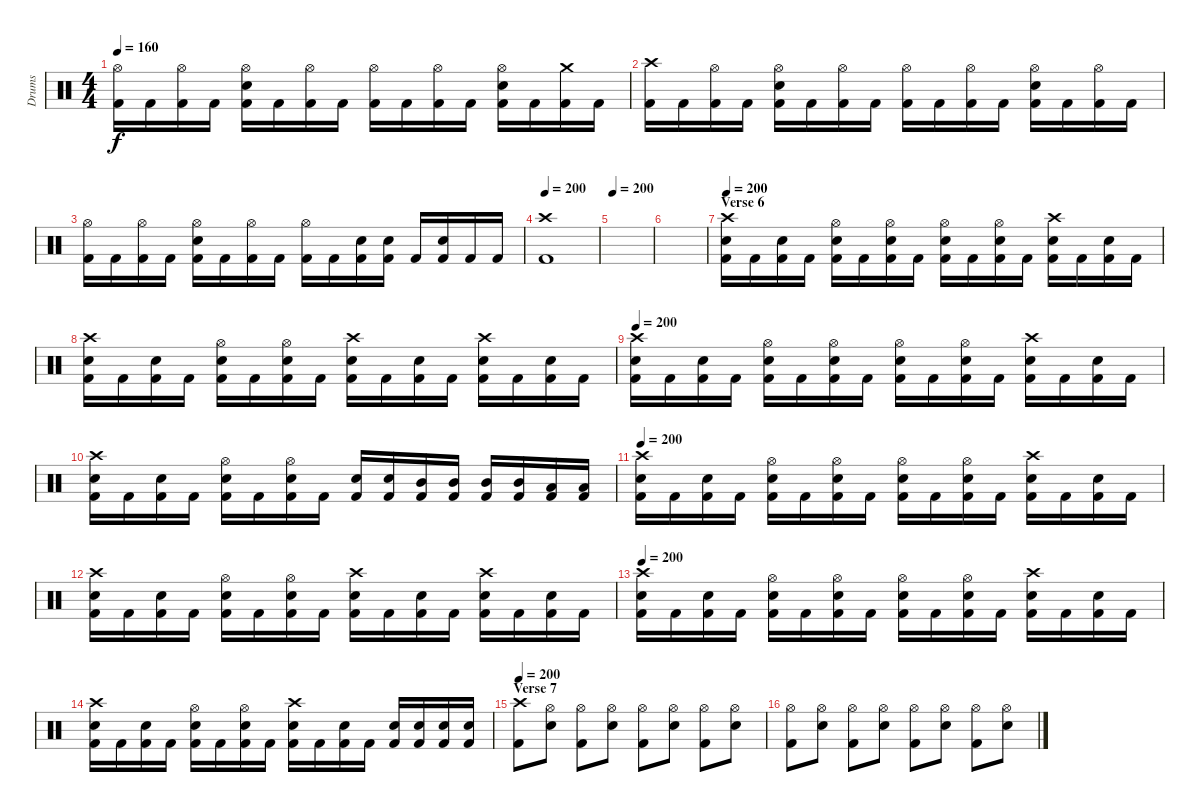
\track ("Drums" "Drums") {instrument percussion}
\staff {score}
\articulation defaults
\ts (4 4)
\tempo 160
\clef neutral
\ks c
("Hi-Hat (open)" "Kick (hit) 2").16{dy f} "Kick (hit) 2".16 ("Hi-Hat (open)" "Kick (hit) 2").16 "Kick (hit) 2".16 ("Hi-Hat (open)" "Electric Snare (hit)" "Kick (hit) 2").16 "Kick (hit) 2".16 ("Hi-Hat (open)" "Kick (hit) 2").16 "Kick (hit) 2".16 ("Hi-Hat (open)" "Kick (hit) 2").16 "Kick (hit) 2".16 ("Hi-Hat (open)" "Kick (hit) 2").16 "Kick (hit) 2".16 ("Hi-Hat (open)" "Electric Snare (hit)" "Kick (hit) 2").16 "Kick (hit) 2".16 ("Crash medium (hit)" "Kick (hit) 2").16 "Kick (hit) 2".16 |
("Crash high (hit)" "Kick (hit) 2").16 "Kick (hit) 2".16 ("Hi-Hat (open)" "Kick (hit) 2").16 "Kick (hit) 2".16 ("Hi-Hat (open)" "Electric Snare (hit)" "Kick (hit) 2").16 "Kick (hit) 2".16 ("Hi-Hat (open)" "Kick (hit) 2").16 "Kick (hit) 2".16 ("Hi-Hat (open)" "Kick (hit) 2").16 "Kick (hit) 2".16 ("Hi-Hat (open)" "Kick (hit) 2").16 "Kick (hit) 2".16 ("Hi-Hat (open)" "Electric Snare (hit)" "Kick (hit) 2").16 "Kick (hit) 2".16 ("Hi-Hat (open)" "Kick (hit) 2").16 "Kick (hit) 2".16 |
("Hi-Hat (open)" "Kick (hit) 2").16 "Kick (hit) 2".16 ("Hi-Hat (open)" "Kick (hit) 2").16 "Kick (hit) 2".16 ("Hi-Hat (open)" "Electric Snare (hit)" "Kick (hit) 2").16 "Kick (hit) 2".16 ("Hi-Hat (open)" "Kick (hit) 2").16 "Kick (hit) 2".16 ("Hi-Hat (open)" "Kick (hit) 2").16 "Kick (hit) 2".16 ("Electric Snare (hit)" "Kick (hit) 2").16 ("Electric Snare (hit)" "Kick (hit) 2").16 "Kick (hit) 2".16 ("Electric Snare (hit)" "Kick (hit) 2").16 "Kick (hit) 2".16 "Kick (hit) 2".16 |
\tempo 200
("Crash high (hit)" "Kick (hit) 2").1 |
\tempo 200
|
|
\section ("" "Verse 6")
\tempo 200
("Crash high (hit)" "Electric Snare (hit)" "Kick (hit) 2").16 "Kick (hit) 2".16 ("Electric Snare (hit)" "Kick (hit) 2").16 "Kick (hit) 2".16 ("Hi-Hat (open)" "Electric Snare (hit)" "Kick (hit) 2").16 "Kick (hit) 2".16 ("Hi-Hat (open)" "Electric Snare (hit)" "Kick (hit) 2").16 "Kick (hit) 2".16 ("Hi-Hat (open)" "Electric Snare (hit)" "Kick (hit) 2").16 "Kick (hit) 2".16 ("Hi-Hat (open)" "Electric Snare (hit)" "Kick (hit) 2").16 "Kick (hit) 2".16 ("Crash high (hit)" "Electric Snare (hit)" "Kick (hit) 2").16 "Kick (hit) 2".16 ("Electric Snare (hit)" "Kick (hit) 2").16 "Kick (hit) 2".16 |
("Crash high (hit)" "Electric Snare (hit)" "Kick (hit) 2").16 "Kick (hit) 2".16 ("Electric Snare (hit)" "Kick (hit) 2").16 "Kick (hit) 2".16 ("Hi-Hat (open)" "Electric Snare (hit)" "Kick (hit) 2").16 "Kick (hit) 2".16 ("Hi-Hat (open)" "Electric Snare (hit)" "Kick (hit) 2").16 "Kick (hit) 2".16 ("Crash high (hit)" "Electric Snare (hit)" "Kick (hit) 2").16 "Kick (hit) 2".16 ("Electric Snare (hit)" "Kick (hit) 2").16 "Kick (hit) 2".16 ("Crash high (hit)" "Electric Snare (hit)" "Kick (hit) 2").16 "Kick (hit) 2".16 ("Electric Snare (hit)" "Kick (hit) 2").16 "Kick (hit) 2".16 |
\tempo 190
\tempo 200
("Crash high (hit)" "Electric Snare (hit)" "Kick (hit) 2").16 "Kick (hit) 2".16 ("Electric Snare (hit)" "Kick (hit) 2").16 "Kick (hit) 2".16 ("Hi-Hat (open)" "Electric Snare (hit)" "Kick (hit) 2").16 "Kick (hit) 2".16 ("Hi-Hat (open)" "Electric Snare (hit)" "Kick (hit) 2").16 "Kick (hit) 2".16 ("Hi-Hat (open)" "Electric Snare (hit)" "Kick (hit) 2").16 "Kick (hit) 2".16 ("Hi-Hat (open)" "Electric Snare (hit)" "Kick (hit) 2").16 "Kick (hit) 2".16 ("Crash high (hit)" "Electric Snare (hit)" "Kick (hit) 2").16 "Kick (hit) 2".16 ("Electric Snare (hit)" "Kick (hit) 2").16 "Kick (hit) 2".16 |
("Crash high (hit)" "Electric Snare (hit)" "Kick (hit) 2").16 "Kick (hit) 2".16 ("Electric Snare (hit)" "Kick (hit) 2").16 "Kick (hit) 2".16 ("Hi-Hat (open)" "Electric Snare (hit)" "Kick (hit) 2").16 "Kick (hit) 2".16 ("Hi-Hat (open)" "Electric Snare (hit)" "Kick (hit) 2").16 "Kick (hit) 2".16 ("Electric Snare (hit)" "Kick (hit) 2").16 ("Electric Snare (hit)" "Kick (hit) 2").16 ("Mid Tom (hit)" "Kick (hit) 2").16 ("Mid Tom (hit)" "Kick (hit) 2").16 ("Mid Tom (hit)" "Kick (hit) 2").16 ("Mid Tom (hit)" "Kick (hit) 2").16 ("Low Tom (hit)" "Kick (hit) 2").16 ("Low Tom (hit)" "Kick (hit) 2").16 |
\tempo 200
("Crash high (hit)" "Electric Snare (hit)" "Kick (hit) 2").16 "Kick (hit) 2".16 ("Electric Snare (hit)" "Kick (hit) 2").16 "Kick (hit) 2".16 ("Hi-Hat (open)" "Electric Snare (hit)" "Kick (hit) 2").16 "Kick (hit) 2".16 ("Hi-Hat (open)" "Electric Snare (hit)" "Kick (hit) 2").16 "Kick (hit) 2".16 ("Hi-Hat (open)" "Electric Snare (hit)" "Kick (hit) 2").16 "Kick (hit) 2".16 ("Hi-Hat (open)" "Electric Snare (hit)" "Kick (hit) 2").16 "Kick (hit) 2".16 ("Crash high (hit)" "Electric Snare (hit)" "Kick (hit) 2").16 "Kick (hit) 2".16 ("Electric Snare (hit)" "Kick (hit) 2").16 "Kick (hit) 2".16 |
("Crash high (hit)" "Electric Snare (hit)" "Kick (hit) 2").16 "Kick (hit) 2".16 ("Electric Snare (hit)" "Kick (hit) 2").16 "Kick (hit) 2".16 ("Hi-Hat (open)" "Electric Snare (hit)" "Kick (hit) 2").16 "Kick (hit) 2".16 ("Hi-Hat (open)" "Electric Snare (hit)" "Kick (hit) 2").16 "Kick (hit) 2".16 ("Crash high (hit)" "Electric Snare (hit)" "Kick (hit) 2").16 "Kick (hit) 2".16 ("Electric Snare (hit)" "Kick (hit) 2").16 "Kick (hit) 2".16 ("Crash high (hit)" "Electric Snare (hit)" "Kick (hit) 2").16 "Kick (hit) 2".16 ("Electric Snare (hit)" "Kick (hit) 2").16 "Kick (hit) 2".16 |
\tempo 190
\tempo 200
("Crash high (hit)" "Electric Snare (hit)" "Kick (hit) 2").16 "Kick (hit) 2".16 ("Electric Snare (hit)" "Kick (hit) 2").16 "Kick (hit) 2".16 ("Hi-Hat (open)" "Electric Snare (hit)" "Kick (hit) 2").16 "Kick (hit) 2".16 ("Hi-Hat (open)" "Electric Snare (hit)" "Kick (hit) 2").16 "Kick (hit) 2".16 ("Hi-Hat (open)" "Electric Snare (hit)" "Kick (hit) 2").16 "Kick (hit) 2".16 ("Hi-Hat (open)" "Electric Snare (hit)" "Kick (hit) 2").16 "Kick (hit) 2".16 ("Crash high (hit)" "Electric Snare (hit)" "Kick (hit) 2").16 "Kick (hit) 2".16 ("Electric Snare (hit)" "Kick (hit) 2").16 "Kick (hit) 2".16 |
("Crash high (hit)" "Electric Snare (hit)" "Kick (hit) 2").16 "Kick (hit) 2".16 ("Electric Snare (hit)" "Kick (hit) 2").16 "Kick (hit) 2".16 ("Hi-Hat (open)" "Electric Snare (hit)" "Kick (hit) 2").16 "Kick (hit) 2".16 ("Hi-Hat (open)" "Electric Snare (hit)" "Kick (hit) 2").16 "Kick (hit) 2".16 ("Crash high (hit)" "Electric Snare (hit)" "Kick (hit) 2").16 "Kick (hit) 2".16 ("Electric Snare (hit)" "Kick (hit) 2").16 "Kick (hit) 2".16 ("Electric Snare (hit)" "Kick (hit) 2").16 ("Electric Snare (hit)" "Kick (hit) 2").16 ("Electric Snare (hit)" "Kick (hit) 2").16 ("Electric Snare (hit)" "Kick (hit) 2").16 |
\section ("" "Verse 7")
\tempo 200
("Crash high (hit)" "Kick (hit) 2").8 ("Hi-Hat (open)" "Electric Snare (hit)").8 ("Hi-Hat (open)" "Kick (hit) 2").8 ("Hi-Hat (open)" "Electric Snare (hit)").8 ("Hi-Hat (open)" "Kick (hit) 2").8 ("Hi-Hat (open)" "Electric Snare (hit)").8 ("Hi-Hat (open)" "Kick (hit) 2").8 ("Hi-Hat (open)" "Electric Snare (hit)").8 |
("Hi-Hat (open)" "Kick (hit) 2").8 ("Hi-Hat (open)" "Electric Snare (hit)").8 ("Hi-Hat (open)" "Kick (hit) 2").8 ("Hi-Hat (open)" "Electric Snare (hit)").8 ("Hi-Hat (open)" "Kick (hit) 2").8 ("Hi-Hat (open)" "Electric Snare (hit)").8 ("Hi-Hat (open)" "Kick (hit) 2").8 ("Hi-Hat (open)" "Electric Snare (hit)").8
